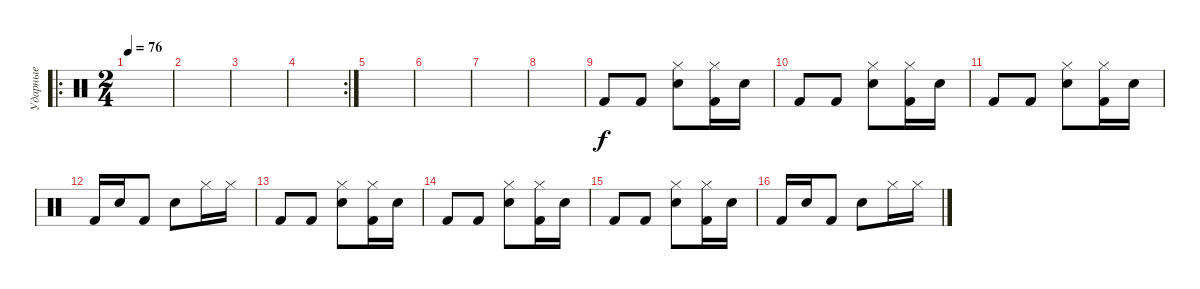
\track ("Ударные" "Ударные") {instrument percussion}
\staff {score}
\articulation defaults
\ro
\ts (2 4)
\tempo 76
\clef neutral
\ks c
|
|
|
\rc 2
|
|
|
|
|
"Kick (hit) 2".8 "Kick (hit) 2".8 ("Electric Snare (hit)" "Hi-Hat (closed)").8 ("Kick (hit) 2" "Hi-Hat (closed)").16 "Electric Snare (hit)".16 |
"Kick (hit) 2".8 "Kick (hit) 2".8 ("Electric Snare (hit)" "Hi-Hat (closed)").8 ("Kick (hit) 2" "Hi-Hat (closed)").16 "Electric Snare (hit)".16 |
"Kick (hit) 2".8 "Kick (hit) 2".8 ("Electric Snare (hit)" "Hi-Hat (closed)").8 ("Kick (hit) 2" "Hi-Hat (closed)").16 "Electric Snare (hit)".16 |
"Kick (hit) 2".16 "Electric Snare (hit)".16 "Kick (hit) 2".8 "Electric Snare (hit)".8 "Hi-Hat (closed)".16 "Hi-Hat (closed)".16 |
"Kick (hit) 2".8 "Kick (hit) 2".8 ("Electric Snare (hit)" "Hi-Hat (closed)").8 ("Kick (hit) 2" "Hi-Hat (closed)").16 "Electric Snare (hit)".16 |
"Kick (hit) 2".8 "Kick (hit) 2".8 ("Electric Snare (hit)" "Hi-Hat (closed)").8 ("Kick (hit) 2" "Hi-Hat (closed)").16 "Electric Snare (hit)".16 |
"Kick (hit) 2".8 "Kick (hit) 2".8 ("Electric Snare (hit)" "Hi-Hat (closed)").8 ("Kick (hit) 2" "Hi-Hat (closed)").16 "Electric Snare (hit)".16 |
"Kick (hit) 2".16 "Electric Snare (hit)".16 "Kick (hit) 2".8 "Electric Snare (hit)".8 "Hi-Hat (closed)".16 "Hi-Hat (closed)".16
